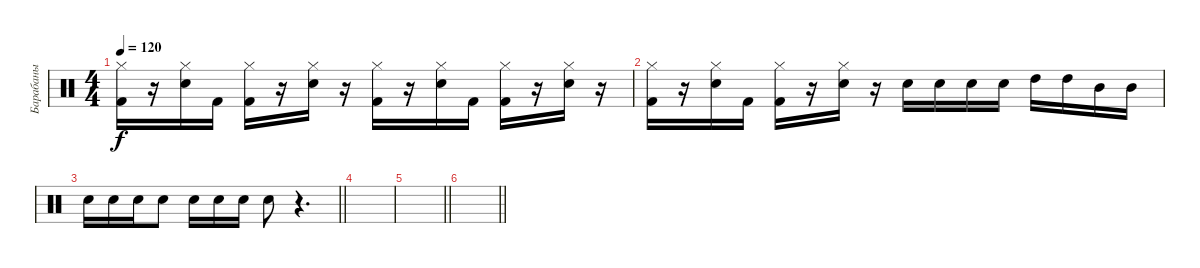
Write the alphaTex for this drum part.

\track ("Барабаны" "Барабаны") {instrument percussion}
\staff {score}
\articulation defaults
\ts (4 4)
\tempo 120
\clef neutral
\ks c
("Hi-Hat (closed)" "Kick (hit) 2").16{dy f} r.16 ("Hi-Hat (closed)" "Electric Snare (hit)").16 "Kick (hit) 2".16 ("Hi-Hat (closed)" "Kick (hit) 2").16 r.16 ("Hi-Hat (closed)" "Electric Snare (hit)").16 r.16 ("Hi-Hat (closed)" "Kick (hit) 2").16 r.16 ("Hi-Hat (closed)" "Electric Snare (hit)").16 "Kick (hit) 2".16 ("Hi-Hat (closed)" "Kick (hit) 2").16 r.16 ("Hi-Hat (closed)" "Electric Snare (hit)").16 r.16 |
("Hi-Hat (closed)" "Kick (hit) 2").16 r.16 ("Hi-Hat (closed)" "Electric Snare (hit)").16 "Kick (hit) 2".16 ("Hi-Hat (closed)" "Kick (hit) 2").16 r.16 ("Hi-Hat (closed)" "Electric Snare (hit)").16 r.16 "Electric Snare (hit)".16 "Electric Snare (hit)".16 "Electric Snare (hit)".16 "Electric Snare (hit)".16 "High Tom (hit)".16 "High Tom (hit)".16 "Mid Tom (hit)".16 "Mid Tom (hit)".16 |
\barLineRight lightlight "Electric Snare (hit)".16 "Electric Snare (hit)".16 "Electric Snare (hit)".16 "Electric Snare (hit)".8 "Electric Snare (hit)".16 "Electric Snare (hit)".16 "Electric Snare (hit)".16 "Electric Snare (hit)".8
r.4{d} |
|
\barLineRight lightlight
|
\barLineRight lightlight
